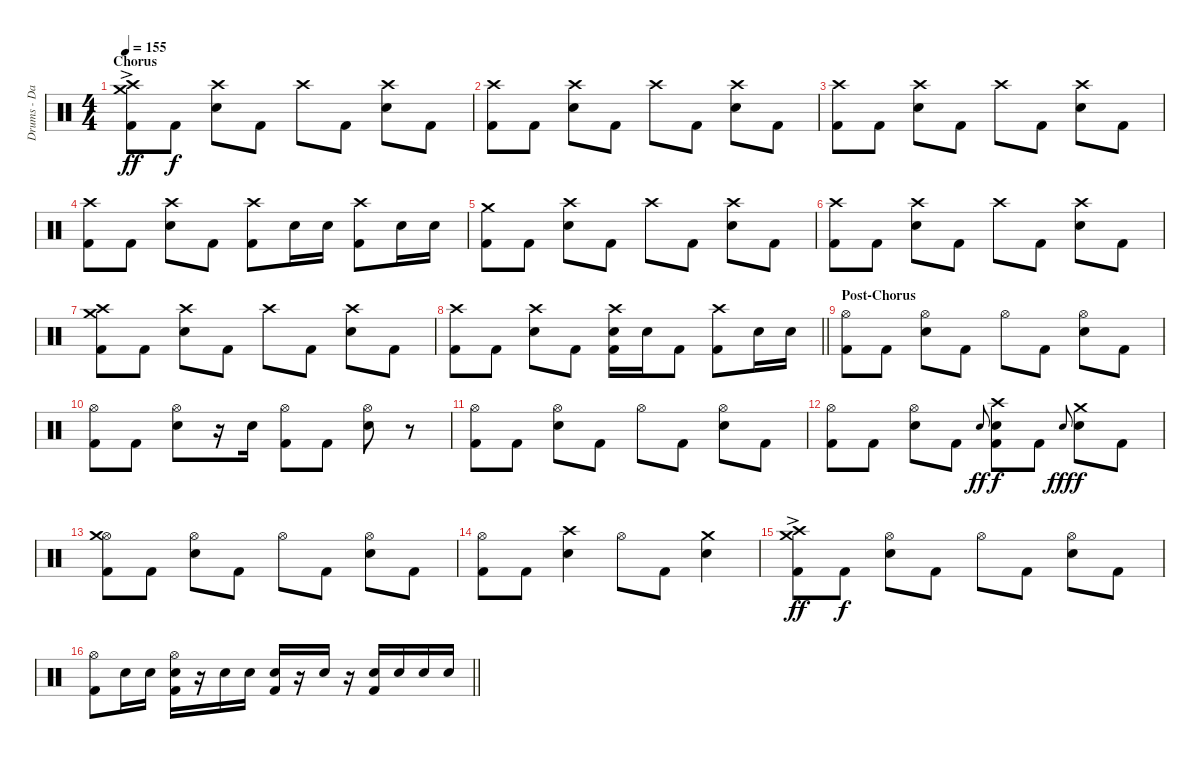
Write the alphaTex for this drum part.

\track ("Drums - Daniel Adair" "Drums - Da") {instrument percussion bank 1}
\staff {score}
\articulation defaults
\ts (4 4)
\section ("" "Chorus")
\tempo 155
\clef neutral
\ks c
("Crash high (hit)" "Crash medium (hit)"{ac} "Kick (hit) 2").8{dy ff} "Kick (hit) 2".8{dy f} ("Crash high (hit)" "Snare (hit) 2").8 "Kick (hit) 2".8 "Crash high (hit)".8 "Kick (hit) 2".8 ("Crash high (hit)" "Snare (hit) 2").8 "Kick (hit) 2".8 |
("Crash high (hit)" "Kick (hit) 2").8 "Kick (hit) 2".8 ("Crash high (hit)" "Snare (hit) 2").8 "Kick (hit) 2".8 "Crash high (hit)".8 "Kick (hit) 2".8 ("Crash high (hit)" "Snare (hit) 2").8 "Kick (hit) 2".8 |
("Crash high (hit)" "Kick (hit) 2").8 "Kick (hit) 2".8 ("Crash high (hit)" "Snare (hit) 2").8 "Kick (hit) 2".8 "Crash high (hit)".8 "Kick (hit) 2".8 ("Crash high (hit)" "Snare (hit) 2").8 "Kick (hit) 2".8 |
("Crash high (hit)" "Kick (hit) 2").8 "Kick (hit) 2".8 ("Crash high (hit)" "Snare (hit) 2").8 "Kick (hit) 2".8 ("Crash high (hit)" "Kick (hit) 2").8 "Snare (hit) 2".16 "Snare (hit) 2".16 ("Crash high (hit)" "Kick (hit) 2").8 "Snare (hit) 2".16 "Snare (hit) 2".16 |
("Crash medium (hit)" "Kick (hit) 2").8 "Kick (hit) 2".8 ("Crash high (hit)" "Snare (hit) 2").8 "Kick (hit) 2".8 "Crash high (hit)".8 "Kick (hit) 2".8 ("Crash high (hit)" "Snare (hit) 2").8 "Kick (hit) 2".8 |
("Crash high (hit)" "Kick (hit) 2").8 "Kick (hit) 2".8 ("Crash high (hit)" "Snare (hit) 2").8 "Kick (hit) 2".8 "Crash high (hit)".8 "Kick (hit) 2".8 ("Crash high (hit)" "Snare (hit) 2").8 "Kick (hit) 2".8 |
("Crash high (hit)" "Crash medium (hit)" "Kick (hit) 2").8 "Kick (hit) 2".8 ("Crash high (hit)" "Snare (hit) 2").8 "Kick (hit) 2".8 "Crash high (hit)".8 "Kick (hit) 2".8 ("Crash high (hit)" "Snare (hit) 2").8 "Kick (hit) 2".8 |
\barLineRight lightlight
("Crash high (hit)" "Kick (hit) 2").8 "Kick (hit) 2".8 ("Crash high (hit)" "Snare (hit) 2").8 "Kick (hit) 2".8 ("Crash high (hit)" "Snare (hit) 2" "Kick (hit) 2").16 "Snare (hit) 2".16 "Kick (hit) 2".8 ("Crash high (hit)" "Kick (hit) 2").8 "Snare (hit) 2".16 "Snare (hit) 2".16 |
\section ("" "Post-Chorus")
("Hi-Hat (open)" "Kick (hit) 2").8 "Kick (hit) 2".8 ("Hi-Hat (open)" "Snare (hit) 2").8 "Kick (hit) 2".8 "Hi-Hat (open)".8 "Kick (hit) 2".8 ("Hi-Hat (open)" "Snare (hit) 2").8 "Kick (hit) 2".8 |
("Hi-Hat (open)" "Kick (hit) 2").8 "Kick (hit) 2".8 ("Hi-Hat (open)" "Snare (hit) 2").8 r.16 "Snare (hit) 2".16 ("Hi-Hat (open)" "Kick (hit) 2").8 "Kick (hit) 2".8 ("Hi-Hat (open)" "Snare (hit) 2").8 r.8 |
("Hi-Hat (open)" "Kick (hit) 2").8 "Kick (hit) 2".8 ("Hi-Hat (open)" "Snare (hit) 2").8 "Kick (hit) 2".8 "Hi-Hat (open)".8 "Kick (hit) 2".8 ("Hi-Hat (open)" "Snare (hit) 2").8 "Kick (hit) 2".8 |
("Hi-Hat (open)" "Kick (hit) 2").8 "Kick (hit) 2".8 ("Hi-Hat (open)" "Snare (hit) 2").8 "Kick (hit) 2".8 "Snare (hit) 2".8{gr onbeat dy ff} ("Crash high (hit)" "Snare (hit) 2" "Kick (hit) 2").8{dy f} "Kick (hit) 2".8 "Snare (hit) 2".8{gr onbeat dy fff} ("Crash medium (hit)" "Snare (hit) 2").8{dy f} "Kick (hit) 2".8 |
("Hi-Hat (open)" "Crash medium (hit)" "Kick (hit) 2").8 "Kick (hit) 2".8 ("Hi-Hat (open)" "Snare (hit) 2").8 "Kick (hit) 2".8 "Hi-Hat (open)".8 "Kick (hit) 2".8 ("Hi-Hat (open)" "Snare (hit) 2").8 "Kick (hit) 2".8 |
("Hi-Hat (open)" "Kick (hit) 2").8 "Kick (hit) 2".8 ("Crash high (hit)" "Snare (hit) 2").4 "Hi-Hat (open)".8 "Kick (hit) 2".8 ("Crash medium (hit)" "Snare (hit) 2").4 |
("Crash high (hit)"{ac} "Crash medium (hit)" "Kick (hit) 2").8{dy ff} "Kick (hit) 2".8{dy f} ("Hi-Hat (open)" "Snare (hit) 2").8 "Kick (hit) 2".8 "Hi-Hat (open)".8 "Kick (hit) 2".8 ("Hi-Hat (open)" "Snare (hit) 2").8 "Kick (hit) 2".8 |
\barLineRight lightlight
("Hi-Hat (open)" "Kick (hit) 2").8 "Snare (hit) 2".16 "Snare (hit) 2".16 ("Hi-Hat (open)" "Snare (hit) 2" "Kick (hit) 2").16 r.16 "Snare (hit) 2".16 "Snare (hit) 2".16 ("Snare (hit) 2" "Kick (hit) 2").16 r.16 "Snare (hit) 2".16 r.16 ("Snare (hit) 2" "Kick (hit) 2").16 "Snare (hit) 2".16 "Snare (hit) 2".16 "Snare (hit) 2".16
